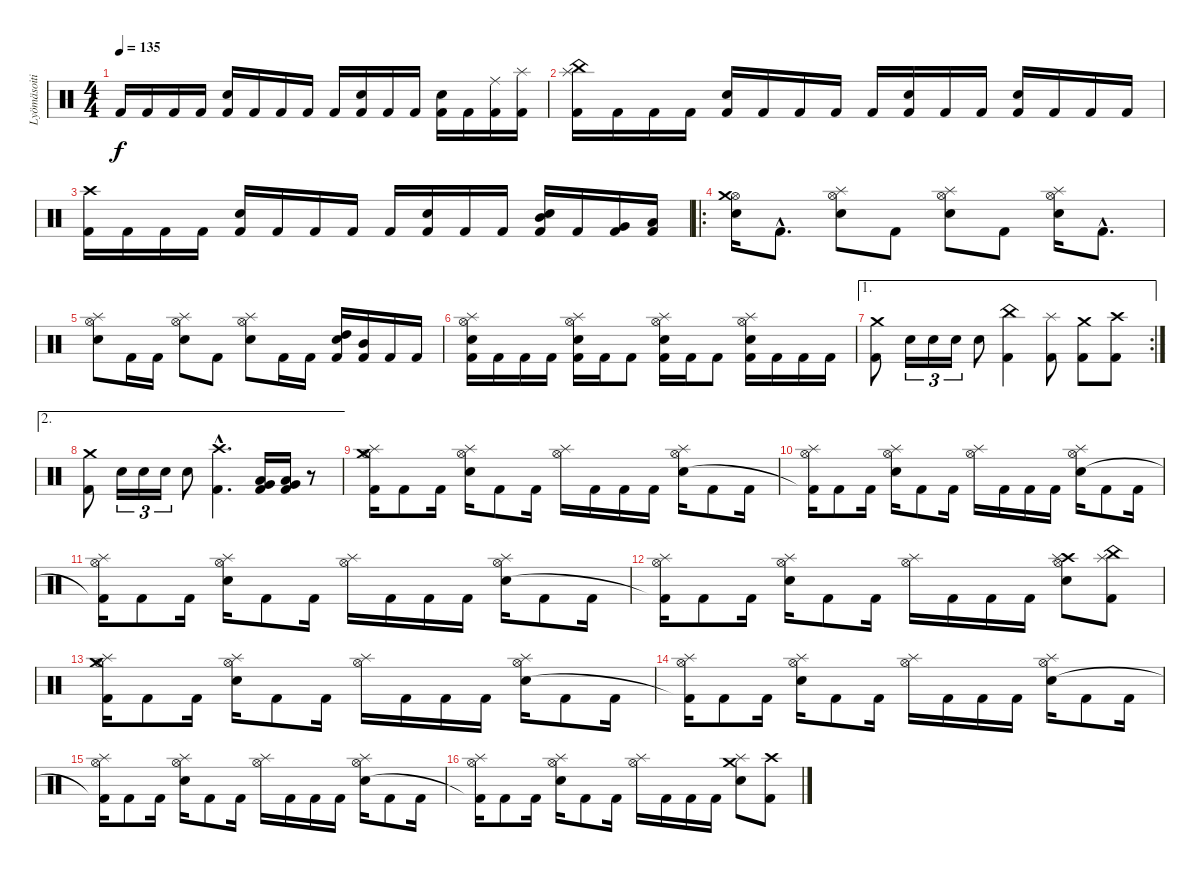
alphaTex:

\track ("Lyömäsoitin" "Lyömäsoiti") {instrument percussion}
\staff {score}
\articulation defaults
\ts (4 4)
\tempo 135
\clef neutral
\ks c "Kick (hit) 2".16{dy f} "Kick (hit) 2".16 "Kick (hit) 2".16 "Kick (hit) 2".16
("Electric Snare (hit)" "Kick (hit) 2").16 "Kick (hit) 2".16 "Kick (hit) 2".16 "Kick (hit) 2".16 "Kick (hit) 2".16 ("Electric Snare (hit)" "Kick (hit) 2").16 "Kick (hit) 2".16 "Kick (hit) 2".16 ("Electric Snare (hit)" "Kick (hit) 2").16 "Kick (hit) 2".16 ("Ride (middle)" "Kick (hit) 2").16 ("Splash (hit)" "Kick (hit) 2").16 |
("Splash (hit)" "China (hit)" "Kick (hit) 2").16 "Kick (hit) 2".16 "Kick (hit) 2".16 "Kick (hit) 2".16 ("Electric Snare (hit)" "Kick (hit) 2").16 "Kick (hit) 2".16 "Kick (hit) 2".16 "Kick (hit) 2".16 "Kick (hit) 2".16 ("Electric Snare (hit)" "Kick (hit) 2").16 "Kick (hit) 2".16 "Kick (hit) 2".16 ("Electric Snare (hit)" "Kick (hit) 2").16 "Kick (hit) 2".16 "Kick (hit) 2".16 "Kick (hit) 2".16 |
("Crash high (hit)" "Kick (hit) 2").16 "Kick (hit) 2".16 "Kick (hit) 2".16 "Kick (hit) 2".16 ("Electric Snare (hit)" "Kick (hit) 2").16 "Kick (hit) 2".16 "Kick (hit) 2".16 "Kick (hit) 2".16 "Kick (hit) 2".16 ("Electric Snare (hit)" "Kick (hit) 2").16 "Kick (hit) 2".16 "Kick (hit) 2".16 ("Mid Tom (hit)" "Electric Snare (hit)" "Kick (hit) 2").16 "Kick (hit) 2".16 ("Very Low Tom (hit)" "Kick (hit) 2").16 ("Low Floor Tom (hit)" "Kick (hit) 2").16 |
\ro
("Hi-Hat (open)" "Crash medium (hit)" "Electric Snare (hit)").16 "Kick (hit) 2"{hac}.8{d} ("Hi-Hat (open)" "Splash (hit)" "Electric Snare (hit)").8 "Kick (hit) 2".8 ("Hi-Hat (open)" "Splash (hit)" "Electric Snare (hit)").8 "Kick (hit) 2".8 ("Hi-Hat (open)" "Splash (hit)" "Electric Snare (hit)").16 "Kick (hit) 2"{hac}.8{d} |
("Splash (hit)" "Hi-Hat (open)" "Electric Snare (hit)").8 "Kick (hit) 2".16 "Kick (hit) 2".16 ("Splash (hit)" "Hi-Hat (open)" "Electric Snare (hit)").8 "Kick (hit) 2".8 ("Splash (hit)" "Hi-Hat (open)" "Electric Snare (hit)").8 "Kick (hit) 2".16 "Kick (hit) 2".16 ("High Tom (hit)" "Electric Snare (hit)" "Kick (hit) 2").16 ("Mid Tom (hit)" "Kick (hit) 2").16 "Kick (hit) 2".16 "Kick (hit) 2".16 |
("Splash (hit)" "Hi-Hat (open)" "Electric Snare (hit)" "Kick (hit) 2").16 "Kick (hit) 2".16 "Kick (hit) 2".16 "Kick (hit) 2".16 ("Splash (hit)" "Hi-Hat (open)" "Electric Snare (hit)" "Kick (hit) 2").16 "Kick (hit) 2".16 "Kick (hit) 2".8 ("Splash (hit)" "Hi-Hat (open)" "Electric Snare (hit)" "Kick (hit) 2").16 "Kick (hit) 2".16 "Kick (hit) 2".8 ("Splash (hit)" "Hi-Hat (open)" "Electric Snare (hit)" "Kick (hit) 2").16 "Kick (hit) 2".16 "Kick (hit) 2".16 "Kick (hit) 2".16 |
\ae 1
\rc 2
("Crash medium (hit)" "Kick (hit) 2").8 "Electric Snare (hit)".16{tu (3 2)} "Electric Snare (hit)".16{tu (3 2)} "Electric Snare (hit)".16{tu (3 2)} "Electric Snare (hit)".8 ("China (hit)" "Kick (hit) 2").4 ("Splash (hit)" "Kick (hit) 2").8 ("Crash medium (hit)" "Kick (hit) 2").8 ("Crash high (hit)" "Kick (hit) 2").8 |
\ae 2
("Crash medium (hit)" "Kick (hit) 2").8 "Electric Snare (hit)".16{tu (3 2)} "Electric Snare (hit)".16{tu (3 2)} "Electric Snare (hit)".16{tu (3 2)} "Electric Snare (hit)".8 ("Crash high (hit)"{hac} "Kick (hit) 2"{hac}).4{d} ("Low Tom (hit)" "Very Low Tom (hit)" "Kick (hit) 2").16 ("Low Tom (hit)" "Very Low Tom (hit)" "Kick (hit) 2").16 r.8 |
("Crash medium (hit)" "Hi-Hat (open)" "Splash (hit)" "Kick (hit) 2").16 "Kick (hit) 2".8 "Kick (hit) 2".16 ("Hi-Hat (open)" "Splash (hit)" "Electric Snare (hit)").16 "Kick (hit) 2".8 "Kick (hit) 2".16 ("Hi-Hat (open)" "Splash (hit)").16 "Kick (hit) 2".16 "Kick (hit) 2".16 "Kick (hit) 2".16 ("Hi-Hat (open)" "Splash (hit)" "Electric Snare (hit)").16 "Kick (hit) 2".8 "Kick (hit) 2".16 |
("Hi-Hat (open)" "Splash (hit)" "Kick (hit) 2"{t}).16 "Kick (hit) 2".8 "Kick (hit) 2".16 ("Hi-Hat (open)" "Splash (hit)" "Electric Snare (hit)").16 "Kick (hit) 2".8 "Kick (hit) 2".16 ("Hi-Hat (open)" "Splash (hit)").16 "Kick (hit) 2".16 "Kick (hit) 2".16 "Kick (hit) 2".16 ("Hi-Hat (open)" "Splash (hit)" "Electric Snare (hit)").16 "Kick (hit) 2".8 "Kick (hit) 2".16 |
("Hi-Hat (open)" "Splash (hit)" "Kick (hit) 2"{t}).16 "Kick (hit) 2".8 "Kick (hit) 2".16 ("Hi-Hat (open)" "Splash (hit)" "Electric Snare (hit)").16 "Kick (hit) 2".8 "Kick (hit) 2".16 ("Hi-Hat (open)" "Splash (hit)").16 "Kick (hit) 2".16 "Kick (hit) 2".16 "Kick (hit) 2".16 ("Hi-Hat (open)" "Splash (hit)" "Electric Snare (hit)").16 "Kick (hit) 2".8 "Kick (hit) 2".16 |
("Hi-Hat (open)" "Splash (hit)" "Kick (hit) 2"{t}).16 "Kick (hit) 2".8 "Kick (hit) 2".16 ("Hi-Hat (open)" "Splash (hit)" "Electric Snare (hit)").16 "Kick (hit) 2".8 "Kick (hit) 2".16 ("Hi-Hat (open)" "Splash (hit)").16 "Kick (hit) 2".16 "Kick (hit) 2".16 "Kick (hit) 2".16 ("Crash high (hit)" "Hi-Hat (open)" "Splash (hit)" "Electric Snare (hit)").8 ("Splash (hit)" "China (hit)" "Kick (hit) 2").8 |
("Crash medium (hit)" "Hi-Hat (open)" "Splash (hit)" "Kick (hit) 2").16 "Kick (hit) 2".8 "Kick (hit) 2".16 ("Hi-Hat (open)" "Splash (hit)" "Electric Snare (hit)").16 "Kick (hit) 2".8 "Kick (hit) 2".16 ("Hi-Hat (open)" "Splash (hit)").16 "Kick (hit) 2".16 "Kick (hit) 2".16 "Kick (hit) 2".16 ("Hi-Hat (open)" "Splash (hit)" "Electric Snare (hit)").16 "Kick (hit) 2".8 "Kick (hit) 2".16 |
("Hi-Hat (open)" "Splash (hit)" "Kick (hit) 2"{t}).16 "Kick (hit) 2".8 "Kick (hit) 2".16 ("Hi-Hat (open)" "Splash (hit)" "Electric Snare (hit)").16 "Kick (hit) 2".8 "Kick (hit) 2".16 ("Hi-Hat (open)" "Splash (hit)").16 "Kick (hit) 2".16 "Kick (hit) 2".16 "Kick (hit) 2".16 ("Hi-Hat (open)" "Splash (hit)" "Electric Snare (hit)").16 "Kick (hit) 2".8 "Kick (hit) 2".16 |
("Hi-Hat (open)" "Splash (hit)" "Kick (hit) 2"{t}).16 "Kick (hit) 2".8 "Kick (hit) 2".16 ("Hi-Hat (open)" "Splash (hit)" "Electric Snare (hit)").16 "Kick (hit) 2".8 "Kick (hit) 2".16 ("Hi-Hat (open)" "Splash (hit)").16 "Kick (hit) 2".16 "Kick (hit) 2".16 "Kick (hit) 2".16 ("Hi-Hat (open)" "Splash (hit)" "Electric Snare (hit)").16 "Kick (hit) 2".8 "Kick (hit) 2".16 |
("Hi-Hat (open)" "Splash (hit)" "Kick (hit) 2"{t}).16 "Kick (hit) 2".8 "Kick (hit) 2".16 ("Hi-Hat (open)" "Splash (hit)" "Electric Snare (hit)").16 "Kick (hit) 2".8 "Kick (hit) 2".16 ("Hi-Hat (open)" "Splash (hit)").16 "Kick (hit) 2".16 "Kick (hit) 2".16 "Kick (hit) 2".16 ("Crash medium (hit)" "Splash (hit)" "Electric Snare (hit)").8 ("Crash high (hit)" "Kick (hit) 2").8
